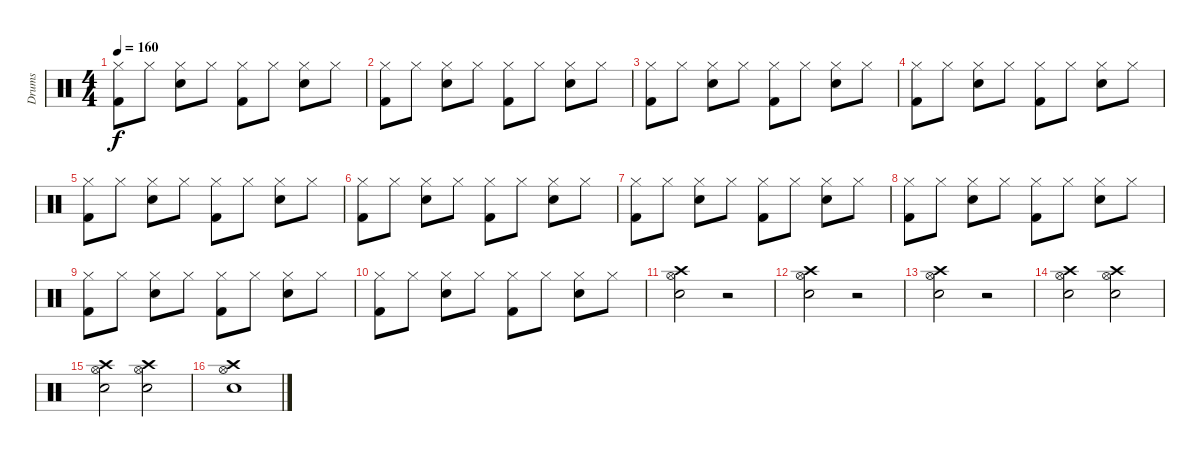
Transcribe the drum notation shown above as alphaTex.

\track ("Drums" "Drums") {instrument percussion}
\staff {score}
\articulation defaults
\ts (4 4)
\tempo 160
\clef neutral
\ks c
("Kick (hit) 2" "Hi-Hat (closed)").8{dy f} "Hi-Hat (closed)".8 ("Electric Snare (hit)" "Hi-Hat (closed)").8 "Hi-Hat (closed)".8 ("Kick (hit) 2" "Hi-Hat (closed)").8 "Hi-Hat (closed)".8 ("Electric Snare (hit)" "Hi-Hat (closed)").8 "Hi-Hat (closed)".8 |
("Kick (hit) 2" "Hi-Hat (closed)").8 "Hi-Hat (closed)".8 ("Electric Snare (hit)" "Hi-Hat (closed)").8 "Hi-Hat (closed)".8 ("Kick (hit) 2" "Hi-Hat (closed)").8 "Hi-Hat (closed)".8 ("Electric Snare (hit)" "Hi-Hat (closed)").8 "Hi-Hat (closed)".8 |
("Kick (hit) 2" "Hi-Hat (closed)").8 "Hi-Hat (closed)".8 ("Electric Snare (hit)" "Hi-Hat (closed)").8 "Hi-Hat (closed)".8 ("Kick (hit) 2" "Hi-Hat (closed)").8 "Hi-Hat (closed)".8 ("Electric Snare (hit)" "Hi-Hat (closed)").8 "Hi-Hat (closed)".8 |
("Kick (hit) 2" "Hi-Hat (closed)").8 "Hi-Hat (closed)".8 ("Electric Snare (hit)" "Hi-Hat (closed)").8 "Hi-Hat (closed)".8 ("Kick (hit) 2" "Hi-Hat (closed)").8 "Hi-Hat (closed)".8 ("Electric Snare (hit)" "Hi-Hat (closed)").8 "Hi-Hat (closed)".8 |
("Kick (hit) 2" "Hi-Hat (closed)").8 "Hi-Hat (closed)".8 ("Electric Snare (hit)" "Hi-Hat (closed)").8 "Hi-Hat (closed)".8 ("Kick (hit) 2" "Hi-Hat (closed)").8 "Hi-Hat (closed)".8 ("Electric Snare (hit)" "Hi-Hat (closed)").8 "Hi-Hat (closed)".8 |
("Kick (hit) 2" "Hi-Hat (closed)").8 "Hi-Hat (closed)".8 ("Electric Snare (hit)" "Hi-Hat (closed)").8 "Hi-Hat (closed)".8 ("Kick (hit) 2" "Hi-Hat (closed)").8 "Hi-Hat (closed)".8 ("Electric Snare (hit)" "Hi-Hat (closed)").8 "Hi-Hat (closed)".8 |
("Kick (hit) 2" "Hi-Hat (closed)").8 "Hi-Hat (closed)".8 ("Electric Snare (hit)" "Hi-Hat (closed)").8 "Hi-Hat (closed)".8 ("Kick (hit) 2" "Hi-Hat (closed)").8 "Hi-Hat (closed)".8 ("Electric Snare (hit)" "Hi-Hat (closed)").8 "Hi-Hat (closed)".8 |
("Kick (hit) 2" "Hi-Hat (closed)").8 "Hi-Hat (closed)".8 ("Electric Snare (hit)" "Hi-Hat (closed)").8 "Hi-Hat (closed)".8 ("Kick (hit) 2" "Hi-Hat (closed)").8 "Hi-Hat (closed)".8 ("Electric Snare (hit)" "Hi-Hat (closed)").8 "Hi-Hat (closed)".8 |
("Kick (hit) 2" "Hi-Hat (closed)").8 "Hi-Hat (closed)".8 ("Electric Snare (hit)" "Hi-Hat (closed)").8 "Hi-Hat (closed)".8 ("Kick (hit) 2" "Hi-Hat (closed)").8 "Hi-Hat (closed)".8 ("Electric Snare (hit)" "Hi-Hat (closed)").8 "Hi-Hat (closed)".8 |
("Kick (hit) 2" "Hi-Hat (closed)").8 "Hi-Hat (closed)".8 ("Electric Snare (hit)" "Hi-Hat (closed)").8 "Hi-Hat (closed)".8 ("Kick (hit) 2" "Hi-Hat (closed)").8 "Hi-Hat (closed)".8 ("Electric Snare (hit)" "Hi-Hat (closed)").8 "Hi-Hat (closed)".8 |
("Crash high (hit)" "Electric Snare (hit)" "Hi-Hat (open)").2 r.2 |
("Crash high (hit)" "Electric Snare (hit)" "Hi-Hat (open)").2 r.2 |
("Crash high (hit)" "Electric Snare (hit)" "Hi-Hat (open)").2 r.2 |
("Crash high (hit)" "Electric Snare (hit)" "Hi-Hat (open)").2 ("Crash high (hit)" "Electric Snare (hit)" "Hi-Hat (open)").2 |
("Crash high (hit)" "Electric Snare (hit)" "Hi-Hat (open)").2 ("Crash high (hit)" "Electric Snare (hit)" "Hi-Hat (open)").2 |
("Crash high (hit)" "Electric Snare (hit)" "Hi-Hat (open)").1
